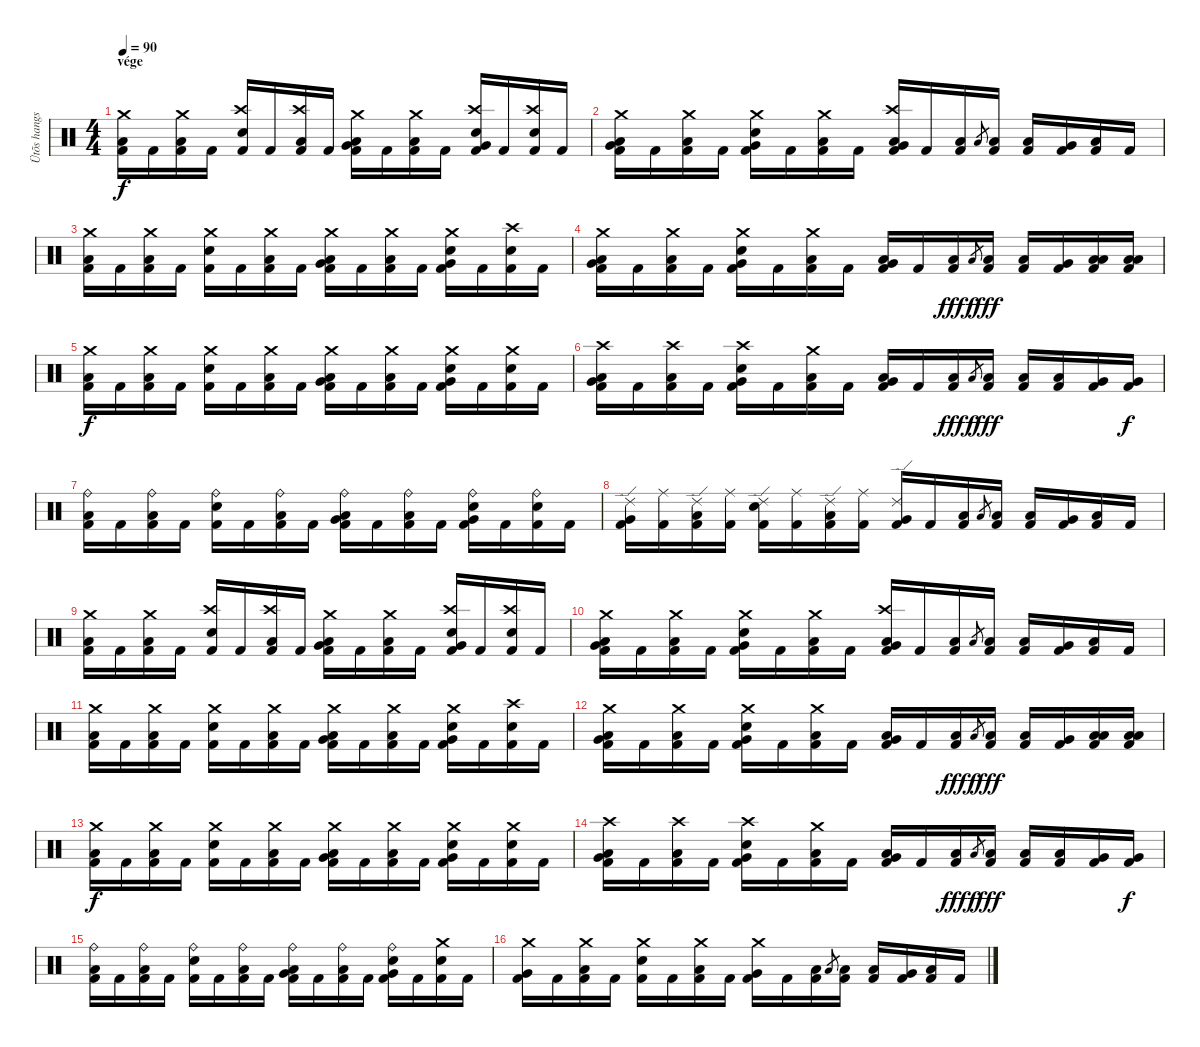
\track ("Ütõs hangszer" "Ütõs hangs") {instrument percussion}
\staff {score}
\articulation defaults
\ts (4 4)
\section ("" "vége")
\tempo 90
\clef neutral
\ks c
("Crash medium (hit)" "Low Tom (hit)" "Kick (hit) 2").16{dy f} "Kick (hit) 2".16 ("Crash medium (hit)" "Low Tom (hit)" "Kick (hit) 2").16 "Kick (hit) 2".16 ("Crash high (hit)" "Electric Snare (hit)" "Kick (hit) 2").16 "Kick (hit) 2".16 ("Crash high (hit)" "Low Floor Tom (hit)" "Kick (hit) 2").16 "Kick (hit) 2".16 ("Crash medium (hit)" "Low Tom (hit)" "Very Low Tom (hit)" "Kick (hit) 2").16 "Kick (hit) 2".16 ("Crash medium (hit)" "Low Tom (hit)" "Kick (hit) 2").16 "Kick (hit) 2".16 ("Crash high (hit)" "Very Low Tom (hit)" "Electric Snare (hit)" "Kick (hit) 2").16 "Kick (hit) 2".16 ("Crash high (hit)" "Electric Snare (hit)" "Kick (hit) 2").16 "Kick (hit) 2".16 |
("Crash medium (hit)" "Low Tom (hit)" "Very Low Tom (hit)" "Kick (hit) 2").16 "Kick (hit) 2".16 ("Crash medium (hit)" "Low Tom (hit)" "Kick (hit) 2").16 "Kick (hit) 2".16 ("Crash medium (hit)" "Very Low Tom (hit)" "Electric Snare (hit)" "Kick (hit) 2").16 "Kick (hit) 2".16 ("Crash medium (hit)" "Low Floor Tom (hit)" "Kick (hit) 2").16 "Kick (hit) 2".16 ("Crash high (hit)" "Low Tom (hit)" "Very Low Tom (hit)" "Kick (hit) 2").16 "Kick (hit) 2".16 ("Low Tom (hit)" "Kick (hit) 2").16 "Low Tom (hit)".8{gr} ("Low Tom (hit)" "Kick (hit) 2").16 ("Low Tom (hit)" "Kick (hit) 2").16 ("Very Low Tom (hit)" "Kick (hit) 2").16 ("Low Floor Tom (hit)" "Kick (hit) 2").16 "Kick (hit) 2".16 |
("Crash medium (hit)" "Low Tom (hit)" "Kick (hit) 2").16 "Kick (hit) 2".16 ("Crash medium (hit)" "Low Tom (hit)" "Kick (hit) 2").16 "Kick (hit) 2".16 ("Crash medium (hit)" "Electric Snare (hit)" "Kick (hit) 2").16 "Kick (hit) 2".16 ("Crash medium (hit)" "Low Floor Tom (hit)" "Kick (hit) 2").16 "Kick (hit) 2".16 ("Crash medium (hit)" "Low Tom (hit)" "Very Low Tom (hit)" "Kick (hit) 2").16 "Kick (hit) 2".16 ("Crash medium (hit)" "Low Tom (hit)" "Kick (hit) 2").16 "Kick (hit) 2".16 ("Crash medium (hit)" "Very Low Tom (hit)" "Electric Snare (hit)" "Kick (hit) 2").16 "Kick (hit) 2".16 ("Crash high (hit)" "Electric Snare (hit)" "Kick (hit) 2").16 "Kick (hit) 2".16 |
("Crash medium (hit)" "Low Tom (hit)" "Very Low Tom (hit)" "Kick (hit) 2").16 "Kick (hit) 2".16 ("Crash medium (hit)" "Low Tom (hit)" "Kick (hit) 2").16 "Kick (hit) 2".16 ("Crash medium (hit)" "Very Low Tom (hit)" "Electric Snare (hit)" "Kick (hit) 2").16 "Kick (hit) 2".16 ("Crash medium (hit)" "Low Floor Tom (hit)" "Kick (hit) 2").16 "Kick (hit) 2".16 ("Low Tom (hit)" "Very Low Tom (hit)" "Kick (hit) 2").16 "Kick (hit) 2".16 ("Low Tom (hit)" "Kick (hit) 2").16{dy fff} "Low Tom (hit)".8{gr dy f} ("Low Tom (hit)" "Kick (hit) 2").16{dy fff} ("Low Tom (hit)" "Kick (hit) 2").16 ("Very Low Tom (hit)" "Kick (hit) 2").16 ("Low Floor Tom (hit)" "Low Floor Tom (hit)" "Kick (hit) 2").16 ("Low Floor Tom (hit)" "Low Floor Tom (hit)" "Kick (hit) 2").16 |
("Crash medium (hit)" "Low Tom (hit)" "Kick (hit) 2").16{dy f} "Kick (hit) 2".16 ("Crash medium (hit)" "Low Tom (hit)" "Kick (hit) 2").16 "Kick (hit) 2".16 ("Crash medium (hit)" "Electric Snare (hit)" "Kick (hit) 2").16 "Kick (hit) 2".16 ("Crash medium (hit)" "Low Floor Tom (hit)" "Kick (hit) 2").16 "Kick (hit) 2".16 ("Crash medium (hit)" "Low Tom (hit)" "Very Low Tom (hit)" "Kick (hit) 2").16 "Kick (hit) 2".16 ("Crash medium (hit)" "Low Tom (hit)" "Kick (hit) 2").16 "Kick (hit) 2".16 ("Crash medium (hit)" "Very Low Tom (hit)" "Electric Snare (hit)" "Kick (hit) 2").16 "Kick (hit) 2".16 ("Crash medium (hit)" "Electric Snare (hit)" "Kick (hit) 2").16 "Kick (hit) 2".16 |
("Crash high (hit)" "Low Tom (hit)" "Very Low Tom (hit)" "Kick (hit) 2").16 "Kick (hit) 2".16 ("Crash high (hit)" "Low Tom (hit)" "Kick (hit) 2").16 "Kick (hit) 2".16 ("Crash high (hit)" "Very Low Tom (hit)" "Electric Snare (hit)" "Kick (hit) 2").16 "Kick (hit) 2".16 ("Crash medium (hit)" "Low Floor Tom (hit)" "Kick (hit) 2").16 "Kick (hit) 2".16 ("Low Tom (hit)" "Very Low Tom (hit)" "Kick (hit) 2").16 "Kick (hit) 2".16 ("Low Floor Tom (hit)" "Kick (hit) 2").16{dy fff} "Low Tom (hit)".8{gr dy f} ("Low Floor Tom (hit)" "Kick (hit) 2").16{dy fff} ("Low Tom (hit)" "Kick (hit) 2").16 ("Low Tom (hit)" "Kick (hit) 2").16 ("Very Low Tom (hit)" "Kick (hit) 2").16 ("Very Low Tom (hit)" "Kick (hit) 2").16{dy f} |
("Ride (bell)" "Low Tom (hit)" "Kick (hit) 2").16 "Kick (hit) 2".16 ("Ride (bell)" "Low Tom (hit)" "Kick (hit) 2").16 "Kick (hit) 2".16 ("Ride (bell)" "Electric Snare (hit)" "Kick (hit) 2").16 "Kick (hit) 2".16 ("Ride (bell)" "Low Floor Tom (hit)" "Kick (hit) 2").16 "Kick (hit) 2".16 ("Ride (bell)" "Low Tom (hit)" "Very Low Tom (hit)" "Kick (hit) 2").16 "Kick (hit) 2".16 ("Ride (bell)" "Low Tom (hit)" "Kick (hit) 2").16 "Kick (hit) 2".16 ("Ride (bell)" "Very Low Tom (hit)" "Electric Snare (hit)" "Kick (hit) 2").16 "Kick (hit) 2".16 ("Ride (bell)" "Electric Snare (hit)" "Kick (hit) 2").16 "Kick (hit) 2".16 |
("Ride (edge) 2" "Very Low Tom (hit)" "Kick (hit) 2").16 ("Ride (middle)" "Kick (hit) 2").16 ("Ride (edge) 2" "Low Tom (hit)" "Kick (hit) 2").16 ("Ride (middle)" "Kick (hit) 2").16 ("Ride (edge) 2" "Electric Snare (hit)" "Kick (hit) 2").16 ("Ride (middle)" "Kick (hit) 2").16 ("Ride (edge) 2" "Low Floor Tom (hit)" "Kick (hit) 2").16 ("Ride (middle)" "Kick (hit) 2").16 ("Ride (edge) 2" "Very Low Tom (hit)" "Kick (hit) 2").16 "Kick (hit) 2".16 ("Low Tom (hit)" "Kick (hit) 2").16 "Low Tom (hit)".8{gr} ("Low Tom (hit)" "Kick (hit) 2").16 ("Low Tom (hit)" "Kick (hit) 2").16 ("Very Low Tom (hit)" "Kick (hit) 2").16 ("Low Floor Tom (hit)" "Kick (hit) 2").16 "Kick (hit) 2".16 |
("Crash medium (hit)" "Low Tom (hit)" "Kick (hit) 2").16 "Kick (hit) 2".16 ("Crash medium (hit)" "Low Tom (hit)" "Kick (hit) 2").16 "Kick (hit) 2".16 ("Crash high (hit)" "Electric Snare (hit)" "Kick (hit) 2").16 "Kick (hit) 2".16 ("Crash high (hit)" "Low Floor Tom (hit)" "Kick (hit) 2").16 "Kick (hit) 2".16 ("Crash medium (hit)" "Low Tom (hit)" "Very Low Tom (hit)" "Kick (hit) 2").16 "Kick (hit) 2".16 ("Crash medium (hit)" "Low Tom (hit)" "Kick (hit) 2").16 "Kick (hit) 2".16 ("Crash high (hit)" "Very Low Tom (hit)" "Electric Snare (hit)" "Kick (hit) 2").16 "Kick (hit) 2".16 ("Crash high (hit)" "Electric Snare (hit)" "Kick (hit) 2").16 "Kick (hit) 2".16 |
("Crash medium (hit)" "Low Tom (hit)" "Very Low Tom (hit)" "Kick (hit) 2").16 "Kick (hit) 2".16 ("Crash medium (hit)" "Low Tom (hit)" "Kick (hit) 2").16 "Kick (hit) 2".16 ("Crash medium (hit)" "Very Low Tom (hit)" "Electric Snare (hit)" "Kick (hit) 2").16 "Kick (hit) 2".16 ("Crash medium (hit)" "Low Floor Tom (hit)" "Kick (hit) 2").16 "Kick (hit) 2".16 ("Crash high (hit)" "Low Tom (hit)" "Very Low Tom (hit)" "Kick (hit) 2").16 "Kick (hit) 2".16 ("Low Tom (hit)" "Kick (hit) 2").16 "Low Tom (hit)".8{gr} ("Low Tom (hit)" "Kick (hit) 2").16 ("Low Tom (hit)" "Kick (hit) 2").16 ("Very Low Tom (hit)" "Kick (hit) 2").16 ("Low Floor Tom (hit)" "Kick (hit) 2").16 "Kick (hit) 2".16 |
("Crash medium (hit)" "Low Tom (hit)" "Kick (hit) 2").16 "Kick (hit) 2".16 ("Crash medium (hit)" "Low Tom (hit)" "Kick (hit) 2").16 "Kick (hit) 2".16 ("Crash medium (hit)" "Electric Snare (hit)" "Kick (hit) 2").16 "Kick (hit) 2".16 ("Crash medium (hit)" "Low Floor Tom (hit)" "Kick (hit) 2").16 "Kick (hit) 2".16 ("Crash medium (hit)" "Low Tom (hit)" "Very Low Tom (hit)" "Kick (hit) 2").16 "Kick (hit) 2".16 ("Crash medium (hit)" "Low Tom (hit)" "Kick (hit) 2").16 "Kick (hit) 2".16 ("Crash medium (hit)" "Very Low Tom (hit)" "Electric Snare (hit)" "Kick (hit) 2").16 "Kick (hit) 2".16 ("Crash high (hit)" "Electric Snare (hit)" "Kick (hit) 2").16 "Kick (hit) 2".16 |
("Crash medium (hit)" "Low Tom (hit)" "Very Low Tom (hit)" "Kick (hit) 2").16 "Kick (hit) 2".16 ("Crash medium (hit)" "Low Tom (hit)" "Kick (hit) 2").16 "Kick (hit) 2".16 ("Crash medium (hit)" "Very Low Tom (hit)" "Electric Snare (hit)" "Kick (hit) 2").16 "Kick (hit) 2".16 ("Crash medium (hit)" "Low Floor Tom (hit)" "Kick (hit) 2").16 "Kick (hit) 2".16 ("Low Tom (hit)" "Very Low Tom (hit)" "Kick (hit) 2").16 "Kick (hit) 2".16 ("Low Tom (hit)" "Kick (hit) 2").16{dy fff} "Low Tom (hit)".8{gr dy f} ("Low Tom (hit)" "Kick (hit) 2").16{dy fff} ("Low Tom (hit)" "Kick (hit) 2").16 ("Very Low Tom (hit)" "Kick (hit) 2").16 ("Low Floor Tom (hit)" "Low Floor Tom (hit)" "Kick (hit) 2").16 ("Low Floor Tom (hit)" "Low Floor Tom (hit)" "Kick (hit) 2").16 |
("Crash medium (hit)" "Low Tom (hit)" "Kick (hit) 2").16{dy f} "Kick (hit) 2".16 ("Crash medium (hit)" "Low Tom (hit)" "Kick (hit) 2").16 "Kick (hit) 2".16 ("Crash medium (hit)" "Electric Snare (hit)" "Kick (hit) 2").16 "Kick (hit) 2".16 ("Crash medium (hit)" "Low Floor Tom (hit)" "Kick (hit) 2").16 "Kick (hit) 2".16 ("Crash medium (hit)" "Low Tom (hit)" "Very Low Tom (hit)" "Kick (hit) 2").16 "Kick (hit) 2".16 ("Crash medium (hit)" "Low Tom (hit)" "Kick (hit) 2").16 "Kick (hit) 2".16 ("Crash medium (hit)" "Very Low Tom (hit)" "Electric Snare (hit)" "Kick (hit) 2").16 "Kick (hit) 2".16 ("Crash medium (hit)" "Electric Snare (hit)" "Kick (hit) 2").16 "Kick (hit) 2".16 |
("Crash high (hit)" "Low Tom (hit)" "Very Low Tom (hit)" "Kick (hit) 2").16 "Kick (hit) 2".16 ("Crash high (hit)" "Low Tom (hit)" "Kick (hit) 2").16 "Kick (hit) 2".16 ("Crash high (hit)" "Very Low Tom (hit)" "Electric Snare (hit)" "Kick (hit) 2").16 "Kick (hit) 2".16 ("Crash medium (hit)" "Low Floor Tom (hit)" "Kick (hit) 2").16 "Kick (hit) 2".16 ("Low Tom (hit)" "Very Low Tom (hit)" "Kick (hit) 2").16 "Kick (hit) 2".16 ("Low Floor Tom (hit)" "Kick (hit) 2").16{dy fff} "Low Tom (hit)".8{gr dy f} ("Low Floor Tom (hit)" "Kick (hit) 2").16{dy fff} ("Low Tom (hit)" "Kick (hit) 2").16 ("Low Tom (hit)" "Kick (hit) 2").16 ("Very Low Tom (hit)" "Kick (hit) 2").16 ("Very Low Tom (hit)" "Kick (hit) 2").16{dy f} |
("Ride (bell)" "Low Tom (hit)" "Kick (hit) 2").16 "Kick (hit) 2".16 ("Ride (bell)" "Low Tom (hit)" "Kick (hit) 2").16 "Kick (hit) 2".16 ("Ride (bell)" "Electric Snare (hit)" "Kick (hit) 2").16 "Kick (hit) 2".16 ("Ride (bell)" "Low Floor Tom (hit)" "Kick (hit) 2").16 "Kick (hit) 2".16 ("Ride (bell)" "Low Tom (hit)" "Very Low Tom (hit)" "Kick (hit) 2").16 "Kick (hit) 2".16 ("Ride (bell)" "Low Tom (hit)" "Kick (hit) 2").16 "Kick (hit) 2".16 ("Ride (bell)" "Very Low Tom (hit)" "Electric Snare (hit)" "Kick (hit) 2").16 "Kick (hit) 2".16 ("Crash medium (hit)" "Electric Snare (hit)" "Kick (hit) 2").16 "Kick (hit) 2".16 |
("Crash medium (hit)" "Very Low Tom (hit)" "Kick (hit) 2").16 "Kick (hit) 2".16 ("Crash medium (hit)" "Low Tom (hit)" "Kick (hit) 2").16 "Kick (hit) 2".16 ("Crash medium (hit)" "Electric Snare (hit)" "Kick (hit) 2").16 "Kick (hit) 2".16 ("Crash medium (hit)" "Low Floor Tom (hit)" "Kick (hit) 2").16 "Kick (hit) 2".16 ("Crash medium (hit)" "Very Low Tom (hit)" "Kick (hit) 2").16 "Kick (hit) 2".16 ("Low Tom (hit)" "Kick (hit) 2").16 "Low Tom (hit)".8{gr} ("Low Tom (hit)" "Kick (hit) 2").16 ("Low Tom (hit)" "Kick (hit) 2").16 ("Very Low Tom (hit)" "Kick (hit) 2").16 ("Low Floor Tom (hit)" "Kick (hit) 2").16 "Kick (hit) 2".16
